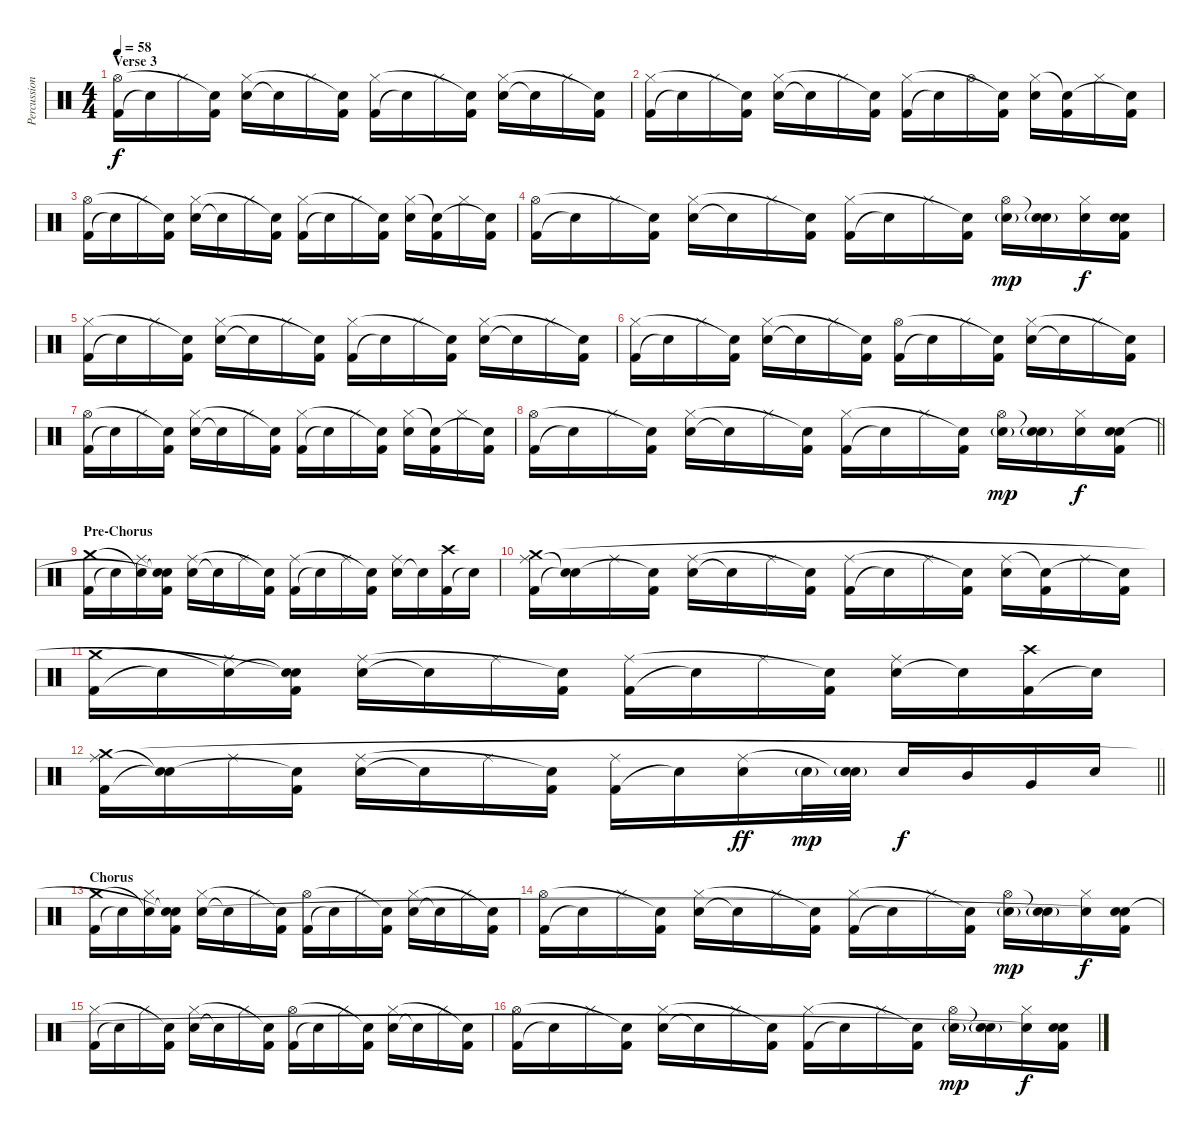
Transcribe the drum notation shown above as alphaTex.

\track ("Percussion" "Percussion") {instrument percussion}
\staff {score}
\articulation defaults
\ts (4 4)
\section ("" "Verse 3")
\tempo 58
\clef neutral
\ks c
("Kick (hit) 2" "Hi-Hat (open)").16{dy f} "Snare (hit)"{t}.16 "Hi-Hat (closed)".16 ("Kick (hit) 2" "Snare (hit)"{t}).16 ("Electric Snare (hit)" "Hi-Hat (closed)").16 "Snare (hit)"{t}.16 "Hi-Hat (closed)".16 ("Kick (hit) 2" "Snare (hit)"{t}).16 ("Kick (hit) 2" "Hi-Hat (closed)").16 "Snare (hit)"{t}.16 "Hi-Hat (closed)".16 ("Kick (hit) 2" "Snare (hit)"{t}).16 ("Electric Snare (hit)" "Hi-Hat (closed)").16 "Snare (hit)"{t}.16 "Hi-Hat (closed)".16 ("Kick (hit) 2" "Snare (hit)"{t}).16 |
("Kick (hit) 2" "Hi-Hat (closed)").16 "Snare (hit)"{t}.16 "Hi-Hat (closed)".16 ("Kick (hit) 2" "Snare (hit)"{t}).16 ("Electric Snare (hit)" "Hi-Hat (closed)").16 "Snare (hit)"{t}.16 "Hi-Hat (closed)".16 ("Kick (hit) 2" "Snare (hit)"{t}).16 ("Kick (hit) 2" "Hi-Hat (closed)").16 "Snare (hit)"{t}.16 "Hi-Hat (open)".16 ("Kick (hit) 2" "Snare (hit)"{t}).16 ("Electric Snare (hit)" "Hi-Hat (closed)").16 ("Kick (hit) 2" "Snare (hit)"{t}).16 "Hi-Hat (closed)".16 ("Kick (hit) 2" "Snare (hit)"{t}).16 |
("Kick (hit) 2" "Hi-Hat (open)").16 "Snare (hit)"{t}.16 "Hi-Hat (closed)".16 ("Kick (hit) 2" "Snare (hit)"{t}).16 ("Electric Snare (hit)" "Hi-Hat (closed)").16 "Snare (hit)"{t}.16 "Hi-Hat (closed)".16 ("Kick (hit) 2" "Snare (hit)"{t}).16 ("Kick (hit) 2" "Hi-Hat (closed)").16 "Snare (hit)"{t}.16 "Hi-Hat (closed)".16 ("Kick (hit) 2" "Snare (hit)"{t}).16 ("Electric Snare (hit)" "Hi-Hat (closed)").16 ("Kick (hit) 2" "Snare (hit)"{t}).16 "Hi-Hat (closed)".16 ("Kick (hit) 2" "Snare (hit)"{t}).16 |
("Kick (hit) 2" "Hi-Hat (open)").16 "Snare (hit)"{t}.16 "Hi-Hat (closed)".16 ("Kick (hit) 2" "Snare (hit)"{t}).16 ("Electric Snare (hit)" "Hi-Hat (closed)").16 "Snare (hit)"{t}.16 "Hi-Hat (closed)".16 ("Kick (hit) 2" "Snare (hit)"{t}).16 ("Kick (hit) 2" "Hi-Hat (closed)").16 "Snare (hit)"{t}.16 "Hi-Hat (closed)".16 ("Kick (hit) 2" "Snare (hit)"{t}).16 ("Electric Snare (hit)"{g} "Hi-Hat (open)").16{dy mp} ("Electric Snare (hit)"{g} "Snare (hit)"{t}).16 ("Electric Snare (hit)" "Hi-Hat (closed)").16{dy f} ("Kick (hit) 2" "Electric Snare (hit)" "Snare (hit)").16 |
("Kick (hit) 2" "Hi-Hat (closed)").16 "Snare (hit)"{t}.16 "Hi-Hat (closed)".16 ("Kick (hit) 2" "Snare (hit)"{t}).16 ("Electric Snare (hit)" "Hi-Hat (closed)").16 "Snare (hit)"{t}.16 "Hi-Hat (closed)".16 ("Kick (hit) 2" "Snare (hit)"{t}).16 ("Kick (hit) 2" "Hi-Hat (closed)").16 "Snare (hit)"{t}.16 "Hi-Hat (closed)".16 ("Kick (hit) 2" "Snare (hit)"{t}).16 ("Electric Snare (hit)" "Hi-Hat (closed)").16 "Snare (hit)"{t}.16 "Hi-Hat (closed)".16 ("Kick (hit) 2" "Snare (hit)"{t}).16 |
("Kick (hit) 2" "Hi-Hat (closed)").16 "Snare (hit)"{t}.16 "Hi-Hat (closed)".16 ("Kick (hit) 2" "Snare (hit)"{t}).16 ("Electric Snare (hit)" "Hi-Hat (closed)").16 "Snare (hit)"{t}.16 "Hi-Hat (closed)".16 ("Kick (hit) 2" "Snare (hit)"{t}).16 ("Kick (hit) 2" "Hi-Hat (open)").16 "Snare (hit)"{t}.16 "Hi-Hat (closed)".16 ("Kick (hit) 2" "Snare (hit)"{t}).16 ("Electric Snare (hit)" "Hi-Hat (closed)").16 "Snare (hit)"{t}.16 "Hi-Hat (closed)".16 ("Kick (hit) 2" "Snare (hit)"{t}).16 |
("Kick (hit) 2" "Hi-Hat (open)").16 "Snare (hit)"{t}.16 "Hi-Hat (closed)".16 ("Kick (hit) 2" "Snare (hit)"{t}).16 ("Electric Snare (hit)" "Hi-Hat (closed)").16 "Snare (hit)"{t}.16 "Hi-Hat (closed)".16 ("Kick (hit) 2" "Snare (hit)"{t}).16 ("Kick (hit) 2" "Hi-Hat (closed)").16 "Snare (hit)"{t}.16 "Hi-Hat (closed)".16 ("Kick (hit) 2" "Snare (hit)"{t}).16 ("Electric Snare (hit)" "Hi-Hat (closed)").16 ("Kick (hit) 2" "Snare (hit)"{t}).16 "Hi-Hat (closed)".16 ("Kick (hit) 2" "Snare (hit)"{t}).16 |
\barLineRight lightlight
("Kick (hit) 2" "Hi-Hat (open)").16 "Snare (hit)"{t}.16 "Hi-Hat (closed)".16 ("Kick (hit) 2" "Snare (hit)"{t}).16 ("Electric Snare (hit)" "Hi-Hat (closed)").16 "Snare (hit)"{t}.16 "Hi-Hat (closed)".16 ("Kick (hit) 2" "Snare (hit)"{t}).16 ("Kick (hit) 2" "Hi-Hat (closed)").16 "Snare (hit)"{t}.16 "Hi-Hat (closed)".16 ("Kick (hit) 2" "Snare (hit)"{t}).16 ("Electric Snare (hit)"{g} "Hi-Hat (open)").16{dy mp} ("Electric Snare (hit)"{g} "Snare (hit)"{t}).16 ("Electric Snare (hit)" "Hi-Hat (closed)").16{dy f} ("Kick (hit) 2" "Electric Snare (hit)" "Snare (hit)").16 |
\section ("" "Pre-Chorus")
("Kick (hit) 2" "Crash medium (hit)").16 "Snare (hit)"{t}.16 ("Ride (middle)" "Snare (hit)"{t}).16 ("Kick (hit) 2" "Snare (hit)"{t} "Snare (hit)"{t}).16 ("Electric Snare (hit)" "Ride (middle)").16 "Snare (hit)"{t}.16 "Ride (middle)".16 ("Kick (hit) 2" "Snare (hit)"{t}).16 ("Kick (hit) 2" "Ride (middle)").16 "Snare (hit)"{t}.16 "Ride (middle)".16 ("Kick (hit) 2" "Snare (hit)"{t}).16 ("Electric Snare (hit)" "Ride (middle)").16 "Snare (hit)"{t}.16 ("Kick (hit) 2" "Crash high (hit)").16 "Snare (hit)"{t}.16 |
("Kick (hit) 2" "Ride (middle)" "Crash medium (hit)").16 ("Snare (hit)"{t} "Snare (hit)"{t}).16 "Ride (middle)".16 ("Kick (hit) 2" "Snare (hit)"{t}).16 ("Electric Snare (hit)" "Ride (middle)").16 "Snare (hit)"{t}.16 "Ride (middle)".16 ("Kick (hit) 2" "Snare (hit)"{t}).16 ("Kick (hit) 2" "Ride (middle)").16 "Snare (hit)"{t}.16 "Ride (middle)".16 ("Kick (hit) 2" "Snare (hit)"{t}).16 ("Electric Snare (hit)" "Ride (middle)").16 ("Kick (hit) 2" "Snare (hit)"{t}).16 "Ride (middle)".16 ("Kick (hit) 2" "Snare (hit)"{t}).16 |
("Kick (hit) 2" "Crash medium (hit)").16 "Snare (hit)"{t}.16 ("Ride (middle)" "Snare (hit)"{t}).16 ("Kick (hit) 2" "Snare (hit)"{t} "Snare (hit)"{t}).16 ("Electric Snare (hit)" "Ride (middle)").16 "Snare (hit)"{t}.16 "Ride (middle)".16 ("Kick (hit) 2" "Snare (hit)"{t}).16 ("Kick (hit) 2" "Ride (middle)").16 "Snare (hit)"{t}.16 "Ride (middle)".16 ("Kick (hit) 2" "Snare (hit)"{t}).16 ("Electric Snare (hit)" "Ride (middle)").16 "Snare (hit)"{t}.16 ("Kick (hit) 2" "Crash high (hit)").16 "Snare (hit)"{t}.16 |
\barLineRight lightlight
("Kick (hit) 2" "Ride (middle)" "Crash medium (hit)").16 ("Snare (hit)"{t} "Snare (hit)"{t}).16 "Ride (middle)".16 ("Kick (hit) 2" "Snare (hit)"{t}).16 ("Electric Snare (hit)" "Ride (middle)").16 "Snare (hit)"{t}.16 "Ride (middle)".16 ("Kick (hit) 2" "Snare (hit)"{t}).16 ("Kick (hit) 2" "Ride (middle)").16 "Snare (hit)"{t}.16 ("Electric Snare (hit)" "Ride (middle)").16{dy ff} "Electric Snare (hit)"{g}.32{dy mp} ("Electric Snare (hit)"{g} "Snare (hit)"{t}).32 "Electric Snare (hit)".16{dy f} "Mid Tom (hit)".16 "Very Low Tom (hit)".16 "Electric Snare (hit)".16 |
\section ("" "Chorus")
("Kick (hit) 2" "Crash medium (hit)").16 "Snare (hit)"{t}.16 ("Hi-Hat (closed)" "Snare (hit)"{t}).16 ("Kick (hit) 2" "Snare (hit)"{t} "Snare (hit)"{t}).16 ("Electric Snare (hit)" "Hi-Hat (closed)").16 "Snare (hit)"{t}.16 "Hi-Hat (closed)".16 ("Kick (hit) 2" "Snare (hit)"{t}).16 ("Kick (hit) 2" "Hi-Hat (open)").16 "Snare (hit)"{t}.16 "Hi-Hat (closed)".16 ("Kick (hit) 2" "Snare (hit)"{t}).16 ("Electric Snare (hit)" "Hi-Hat (closed)").16 "Snare (hit)"{t}.16 "Hi-Hat (closed)".16 ("Kick (hit) 2" "Snare (hit)"{t}).16 |
("Kick (hit) 2" "Hi-Hat (open)").16 "Snare (hit)"{t}.16 "Hi-Hat (closed)".16 ("Kick (hit) 2" "Snare (hit)"{t}).16 ("Electric Snare (hit)" "Hi-Hat (closed)").16 "Snare (hit)"{t}.16 "Hi-Hat (closed)".16 ("Kick (hit) 2" "Snare (hit)"{t}).16 ("Kick (hit) 2" "Hi-Hat (closed)").16 "Snare (hit)"{t}.16 "Hi-Hat (closed)".16 ("Kick (hit) 2" "Snare (hit)"{t}).16 ("Electric Snare (hit)"{g} "Hi-Hat (open)").16{dy mp} ("Electric Snare (hit)"{g} "Snare (hit)"{t}).16 ("Electric Snare (hit)" "Hi-Hat (closed)").16{dy f} ("Kick (hit) 2" "Electric Snare (hit)" "Snare (hit)"{t}).16 |
("Kick (hit) 2" "Hi-Hat (closed)").16 "Snare (hit)"{t}.16 "Hi-Hat (closed)".16 ("Kick (hit) 2" "Snare (hit)"{t}).16 ("Electric Snare (hit)" "Hi-Hat (closed)").16 "Snare (hit)"{t}.16 "Hi-Hat (closed)".16 ("Kick (hit) 2" "Snare (hit)"{t}).16 ("Kick (hit) 2" "Hi-Hat (open)").16 "Snare (hit)"{t}.16 "Hi-Hat (closed)".16 ("Kick (hit) 2" "Snare (hit)"{t}).16 ("Electric Snare (hit)" "Hi-Hat (closed)").16 "Snare (hit)"{t}.16 "Hi-Hat (closed)".16 ("Kick (hit) 2" "Snare (hit)"{t}).16 |
("Kick (hit) 2" "Hi-Hat (open)").16 "Snare (hit)"{t}.16 "Hi-Hat (closed)".16 ("Kick (hit) 2" "Snare (hit)"{t}).16 ("Electric Snare (hit)" "Hi-Hat (closed)").16 "Snare (hit)"{t}.16 "Hi-Hat (closed)".16 ("Kick (hit) 2" "Snare (hit)"{t}).16 ("Kick (hit) 2" "Hi-Hat (closed)").16 "Snare (hit)"{t}.16 "Hi-Hat (closed)".16 ("Kick (hit) 2" "Snare (hit)"{t}).16 ("Electric Snare (hit)"{g} "Hi-Hat (open)").16{dy mp} ("Electric Snare (hit)"{g} "Snare (hit)"{t}).16 ("Electric Snare (hit)" "Hi-Hat (closed)").16{dy f} ("Kick (hit) 2" "Electric Snare (hit)" "Snare (hit)"{t}).16
